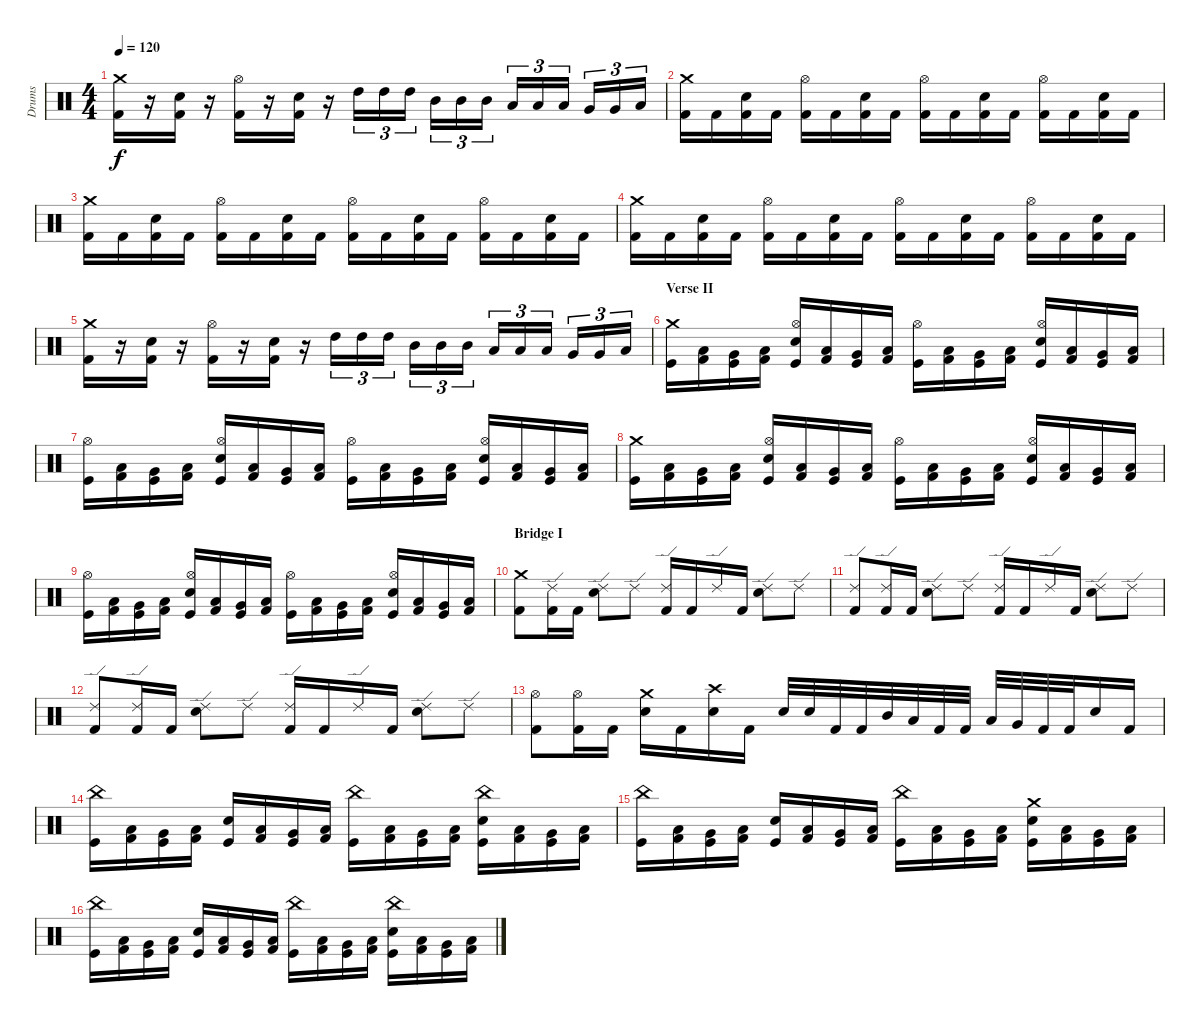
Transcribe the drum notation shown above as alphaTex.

\track ("Drums" "Drums") {instrument percussion}
\staff {score}
\articulation defaults
\ts (4 4)
\tempo 120
\clef neutral
\ks c
("Crash medium (hit)" "Kick (hit) 2").16{dy f} r.16 ("Snare (hit) 2" "Kick (hit) 2").16 r.16 ("Hi-Hat (open)" "Kick (hit) 2").16 r.16 ("Snare (hit) 2" "Kick (hit) 2").16 r.16 "High Tom (hit)".16{tu (3 2)} "High Tom (hit)".16{tu (3 2)} "High Tom (hit)".16{tu (3 2)} "Mid Tom (hit)".16{tu (3 2)} "Mid Tom (hit)".16{tu (3 2)} "Mid Tom (hit)".16{tu (3 2)} "Low Tom (hit)".16{tu (3 2)} "Low Tom (hit)".16{tu (3 2)} "Low Tom (hit)".16{tu (3 2)} "Very Low Tom (hit)".16{tu (3 2)} "Very Low Tom (hit)".16{tu (3 2)} "Low Floor Tom (hit)".16{tu (3 2)} |
("Crash medium (hit)" "Kick (hit) 2").16 "Kick (hit) 2".16 ("Snare (hit) 2" "Kick (hit) 2").16 "Kick (hit) 2".16 ("Hi-Hat (open)" "Kick (hit) 2").16 "Kick (hit) 2".16 ("Snare (hit) 2" "Kick (hit) 2").16 "Kick (hit) 2".16 ("Hi-Hat (open)" "Kick (hit) 2").16 "Kick (hit) 2".16 ("Snare (hit) 2" "Kick (hit) 2").16 "Kick (hit) 2".16 ("Hi-Hat (open)" "Kick (hit) 2").16 "Kick (hit) 2".16 ("Snare (hit) 2" "Kick (hit) 2").16 "Kick (hit) 2".16 |
("Crash medium (hit)" "Kick (hit) 2").16 "Kick (hit) 2".16 ("Snare (hit) 2" "Kick (hit) 2").16 "Kick (hit) 2".16 ("Hi-Hat (open)" "Kick (hit) 2").16 "Kick (hit) 2".16 ("Snare (hit) 2" "Kick (hit) 2").16 "Kick (hit) 2".16 ("Hi-Hat (open)" "Kick (hit) 2").16 "Kick (hit) 2".16 ("Snare (hit) 2" "Kick (hit) 2").16 "Kick (hit) 2".16 ("Hi-Hat (open)" "Kick (hit) 2").16 "Kick (hit) 2".16 ("Snare (hit) 2" "Kick (hit) 2").16 "Kick (hit) 2".16 |
("Crash medium (hit)" "Kick (hit) 2").16 "Kick (hit) 2".16 ("Snare (hit) 2" "Kick (hit) 2").16 "Kick (hit) 2".16 ("Hi-Hat (open)" "Kick (hit) 2").16 "Kick (hit) 2".16 ("Snare (hit) 2" "Kick (hit) 2").16 "Kick (hit) 2".16 ("Hi-Hat (open)" "Kick (hit) 2").16 "Kick (hit) 2".16 ("Snare (hit) 2" "Kick (hit) 2").16 "Kick (hit) 2".16 ("Hi-Hat (open)" "Kick (hit) 2").16 "Kick (hit) 2".16 ("Snare (hit) 2" "Kick (hit) 2").16 "Kick (hit) 2".16 |
("Crash medium (hit)" "Kick (hit) 2").16 r.16 ("Snare (hit) 2" "Kick (hit) 2").16 r.16 ("Hi-Hat (open)" "Kick (hit) 2").16 r.16 ("Snare (hit) 2" "Kick (hit) 2").16 r.16 "High Tom (hit)".16{tu (3 2)} "High Tom (hit)".16{tu (3 2)} "High Tom (hit)".16{tu (3 2)} "Mid Tom (hit)".16{tu (3 2)} "Mid Tom (hit)".16{tu (3 2)} "Mid Tom (hit)".16{tu (3 2)} "Low Tom (hit)".16{tu (3 2)} "Low Tom (hit)".16{tu (3 2)} "Low Tom (hit)".16{tu (3 2)} "Very Low Tom (hit)".16{tu (3 2)} "Very Low Tom (hit)".16{tu (3 2)} "Low Floor Tom (hit)".16{tu (3 2)} |
\section ("" "Verse II")
("Crash medium (hit)" "Kick (hit)").16 ("Low Tom (hit)" "Kick (hit) 2").16 ("Very Low Tom (hit)" "Kick (hit)").16 ("Low Floor Tom (hit)" "Kick (hit) 2").16 ("Hi-Hat (open)" "Snare (hit) 2" "Kick (hit)").16 ("Low Tom (hit)" "Kick (hit) 2").16 ("Very Low Tom (hit)" "Kick (hit)").16 ("Low Floor Tom (hit)" "Kick (hit) 2").16 ("Hi-Hat (open)" "Kick (hit)").16 ("Low Tom (hit)" "Kick (hit) 2").16 ("Very Low Tom (hit)" "Kick (hit)").16 ("Low Floor Tom (hit)" "Kick (hit) 2").16 ("Hi-Hat (open)" "Snare (hit) 2" "Kick (hit)").16 ("Low Tom (hit)" "Kick (hit) 2").16 ("Very Low Tom (hit)" "Kick (hit)").16 ("Low Floor Tom (hit)" "Kick (hit) 2").16 |
("Hi-Hat (open)" "Kick (hit)").16 ("Low Tom (hit)" "Kick (hit) 2").16 ("Very Low Tom (hit)" "Kick (hit)").16 ("Low Floor Tom (hit)" "Kick (hit) 2").16 ("Hi-Hat (open)" "Snare (hit) 2" "Kick (hit)").16 ("Low Tom (hit)" "Kick (hit) 2").16 ("Very Low Tom (hit)" "Kick (hit)").16 ("Low Floor Tom (hit)" "Kick (hit) 2").16 ("Hi-Hat (open)" "Kick (hit)").16 ("Low Tom (hit)" "Kick (hit) 2").16 ("Very Low Tom (hit)" "Kick (hit)").16 ("Low Floor Tom (hit)" "Kick (hit) 2").16 ("Hi-Hat (open)" "Snare (hit) 2" "Kick (hit)").16 ("Low Tom (hit)" "Kick (hit) 2").16 ("Very Low Tom (hit)" "Kick (hit)").16 ("Low Floor Tom (hit)" "Kick (hit) 2").16 |
("Crash medium (hit)" "Kick (hit)").16 ("Low Tom (hit)" "Kick (hit) 2").16 ("Very Low Tom (hit)" "Kick (hit)").16 ("Low Floor Tom (hit)" "Kick (hit) 2").16 ("Hi-Hat (open)" "Snare (hit) 2" "Kick (hit)").16 ("Low Tom (hit)" "Kick (hit) 2").16 ("Very Low Tom (hit)" "Kick (hit)").16 ("Low Floor Tom (hit)" "Kick (hit) 2").16 ("Hi-Hat (open)" "Kick (hit)").16 ("Low Tom (hit)" "Kick (hit) 2").16 ("Very Low Tom (hit)" "Kick (hit)").16 ("Low Floor Tom (hit)" "Kick (hit) 2").16 ("Hi-Hat (open)" "Snare (hit) 2" "Kick (hit)").16 ("Low Tom (hit)" "Kick (hit) 2").16 ("Very Low Tom (hit)" "Kick (hit)").16 ("Low Floor Tom (hit)" "Kick (hit) 2").16 |
("Hi-Hat (open)" "Kick (hit)").16 ("Low Tom (hit)" "Kick (hit) 2").16 ("Very Low Tom (hit)" "Kick (hit)").16 ("Low Floor Tom (hit)" "Kick (hit) 2").16 ("Hi-Hat (open)" "Snare (hit) 2" "Kick (hit)").16 ("Low Tom (hit)" "Kick (hit) 2").16 ("Very Low Tom (hit)" "Kick (hit)").16 ("Low Floor Tom (hit)" "Kick (hit) 2").16 ("Hi-Hat (open)" "Kick (hit)").16 ("Low Tom (hit)" "Kick (hit) 2").16 ("Very Low Tom (hit)" "Kick (hit)").16 ("Low Floor Tom (hit)" "Kick (hit) 2").16 ("Hi-Hat (open)" "Snare (hit) 2" "Kick (hit)").16 ("Low Tom (hit)" "Kick (hit) 2").16 ("Very Low Tom (hit)" "Kick (hit)").16 ("Low Floor Tom (hit)" "Kick (hit) 2").16 |
\section ("" "Bridge I")
("Crash medium (hit)" "Kick (hit) 2").8 ("Ride (edge) 2" "Kick (hit) 2").16 "Kick (hit) 2".16 ("Ride (edge) 2" "Snare (hit) 2").8 "Ride (edge) 2".8 ("Ride (edge) 2" "Kick (hit) 2").16 "Kick (hit) 2".16 "Ride (edge) 2".16 "Kick (hit) 2".16 ("Ride (edge) 2" "Snare (hit) 2").8 "Ride (edge) 2".8 |
("Ride (edge) 2" "Kick (hit) 2").8 ("Ride (edge) 2" "Kick (hit) 2").16 "Kick (hit) 2".16 ("Ride (edge) 2" "Snare (hit) 2").8 "Ride (edge) 2".8 ("Ride (edge) 2" "Kick (hit) 2").16 "Kick (hit) 2".16 "Ride (edge) 2".16 "Kick (hit) 2".16 ("Ride (edge) 2" "Snare (hit) 2").8 "Ride (edge) 2".8 |
("Ride (edge) 2" "Kick (hit) 2").8 ("Ride (edge) 2" "Kick (hit) 2").16 "Kick (hit) 2".16 ("Ride (edge) 2" "Snare (hit) 2").8 "Ride (edge) 2".8 ("Ride (edge) 2" "Kick (hit) 2").16 "Kick (hit) 2".16 "Ride (edge) 2".16 "Kick (hit) 2".16 ("Ride (edge) 2" "Snare (hit) 2").8 "Ride (edge) 2".8 |
("Hi-Hat (open)" "Kick (hit) 2").8 ("Hi-Hat (open)" "Kick (hit) 2").16 "Kick (hit) 2".16 ("Crash medium (hit)" "Snare (hit) 2").16 "Kick (hit) 2".16 ("Crash high (hit)" "Snare (hit) 2").16 "Kick (hit) 2".16 "Snare (hit) 2".32 "Snare (hit) 2".32 "Kick (hit) 2".32 "Kick (hit) 2".32 "Mid Tom (hit)".32 "Low Tom (hit)".32 "Kick (hit) 2".32 "Kick (hit) 2".32 "Low Tom (hit)".32 "Very Low Tom (hit)".32 "Kick (hit) 2".32 "Kick (hit) 2".32 "Snare (hit) 2".16 "Kick (hit) 2".16 |
("China (hit)" "Kick (hit)").16 ("Low Tom (hit)" "Kick (hit) 2").16 ("Very Low Tom (hit)" "Kick (hit)").16 ("Low Floor Tom (hit)" "Kick (hit) 2").16 ("Snare (hit) 2" "Kick (hit)").16 ("Low Tom (hit)" "Kick (hit) 2").16 ("Very Low Tom (hit)" "Kick (hit)").16 ("Low Floor Tom (hit)" "Kick (hit) 2").16 ("China (hit)" "Kick (hit)").16 ("Low Tom (hit)" "Kick (hit) 2").16 ("Very Low Tom (hit)" "Kick (hit)").16 ("Low Floor Tom (hit)" "Kick (hit) 2").16 ("China (hit)" "Snare (hit) 2" "Kick (hit)").16 ("Low Tom (hit)" "Kick (hit) 2").16 ("Very Low Tom (hit)" "Kick (hit)").16 ("Low Floor Tom (hit)" "Kick (hit) 2").16 |
("China (hit)" "Kick (hit)").16 ("Low Tom (hit)" "Kick (hit) 2").16 ("Very Low Tom (hit)" "Kick (hit)").16 ("Low Floor Tom (hit)" "Kick (hit) 2").16 ("Snare (hit) 2" "Kick (hit)").16 ("Low Tom (hit)" "Kick (hit) 2").16 ("Very Low Tom (hit)" "Kick (hit)").16 ("Low Floor Tom (hit)" "Kick (hit) 2").16 ("China (hit)" "Kick (hit)").16 ("Low Tom (hit)" "Kick (hit) 2").16 ("Very Low Tom (hit)" "Kick (hit)").16 ("Low Floor Tom (hit)" "Kick (hit) 2").16 ("Crash medium (hit)" "Snare (hit) 2" "Kick (hit)").16 ("Low Tom (hit)" "Kick (hit) 2").16 ("Very Low Tom (hit)" "Kick (hit)").16 ("Low Floor Tom (hit)" "Kick (hit) 2").16 |
("China (hit)" "Kick (hit)").16 ("Low Tom (hit)" "Kick (hit) 2").16 ("Very Low Tom (hit)" "Kick (hit)").16 ("Low Floor Tom (hit)" "Kick (hit) 2").16 ("Snare (hit) 2" "Kick (hit)").16 ("Low Tom (hit)" "Kick (hit) 2").16 ("Very Low Tom (hit)" "Kick (hit)").16 ("Low Floor Tom (hit)" "Kick (hit) 2").16 ("China (hit)" "Kick (hit)").16 ("Low Tom (hit)" "Kick (hit) 2").16 ("Very Low Tom (hit)" "Kick (hit)").16 ("Low Floor Tom (hit)" "Kick (hit) 2").16 ("China (hit)" "Snare (hit) 2" "Kick (hit)").16 ("Low Tom (hit)" "Kick (hit) 2").16 ("Very Low Tom (hit)" "Kick (hit)").16 ("Low Floor Tom (hit)" "Kick (hit) 2").16
